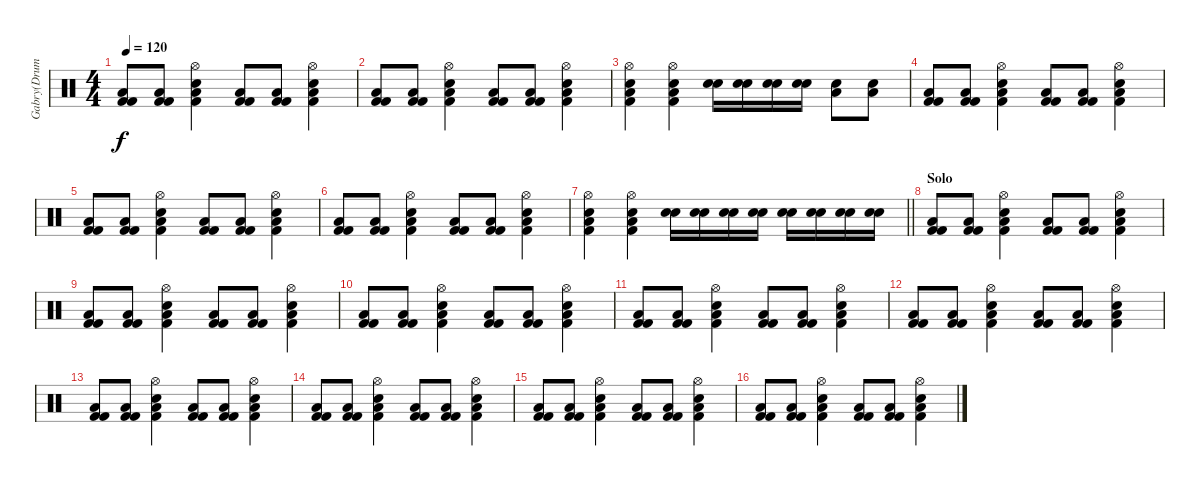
\track ("Gabry(Drums)" "Gabry(Drum") {instrument percussion}
\staff {score}
\articulation defaults
\ts (4 4)
\tempo 120
\clef neutral
\ks c
("Kick (hit) 2" "Kick (hit) 2" "Low Floor Tom (hit)").8{dy f} ("Kick (hit) 2" "Kick (hit) 2" "Low Floor Tom (hit)").8 ("Kick (hit) 2" "Electric Snare (hit)" "Low Floor Tom (hit)" "Hi-Hat (open)").4 ("Kick (hit) 2" "Kick (hit) 2" "Low Floor Tom (hit)").8 ("Kick (hit) 2" "Kick (hit) 2" "Low Floor Tom (hit)").8 ("Kick (hit) 2" "Electric Snare (hit)" "Low Floor Tom (hit)" "Hi-Hat (open)").4 |
("Kick (hit) 2" "Kick (hit) 2" "Low Floor Tom (hit)").8 ("Kick (hit) 2" "Kick (hit) 2" "Low Floor Tom (hit)").8 ("Kick (hit) 2" "Electric Snare (hit)" "Low Floor Tom (hit)" "Hi-Hat (open)").4 ("Kick (hit) 2" "Kick (hit) 2" "Low Floor Tom (hit)").8 ("Kick (hit) 2" "Kick (hit) 2" "Low Floor Tom (hit)").8 ("Kick (hit) 2" "Electric Snare (hit)" "Low Floor Tom (hit)" "Hi-Hat (open)").4 |
("Kick (hit) 2" "Electric Snare (hit)" "Low Floor Tom (hit)" "Hi-Hat (open)").4 ("Kick (hit) 2" "Electric Snare (hit)" "Low Floor Tom (hit)" "Hi-Hat (open)").4 ("Electric Snare (hit)" "Electric Snare (hit)").16 ("Electric Snare (hit)" "Electric Snare (hit)").16 ("Electric Snare (hit)" "Electric Snare (hit)").16 ("Electric Snare (hit)" "Electric Snare (hit)").16 ("Electric Snare (hit)" "Low Floor Tom (hit)").8 ("Electric Snare (hit)" "Low Floor Tom (hit)").8 |
("Kick (hit) 2" "Kick (hit) 2" "Low Floor Tom (hit)").8 ("Kick (hit) 2" "Kick (hit) 2" "Low Floor Tom (hit)").8 ("Kick (hit) 2" "Electric Snare (hit)" "Low Floor Tom (hit)" "Hi-Hat (open)").4 ("Kick (hit) 2" "Kick (hit) 2" "Low Floor Tom (hit)").8 ("Kick (hit) 2" "Kick (hit) 2" "Low Floor Tom (hit)").8 ("Kick (hit) 2" "Electric Snare (hit)" "Low Floor Tom (hit)" "Hi-Hat (open)").4 |
("Kick (hit) 2" "Kick (hit) 2" "Low Floor Tom (hit)").8 ("Kick (hit) 2" "Kick (hit) 2" "Low Floor Tom (hit)").8 ("Kick (hit) 2" "Electric Snare (hit)" "Low Floor Tom (hit)" "Hi-Hat (open)").4 ("Kick (hit) 2" "Kick (hit) 2" "Low Floor Tom (hit)").8 ("Kick (hit) 2" "Kick (hit) 2" "Low Floor Tom (hit)").8 ("Kick (hit) 2" "Electric Snare (hit)" "Low Floor Tom (hit)" "Hi-Hat (open)").4 |
("Kick (hit) 2" "Kick (hit) 2" "Low Floor Tom (hit)").8 ("Kick (hit) 2" "Kick (hit) 2" "Low Floor Tom (hit)").8 ("Kick (hit) 2" "Electric Snare (hit)" "Low Floor Tom (hit)" "Hi-Hat (open)").4 ("Kick (hit) 2" "Kick (hit) 2" "Low Floor Tom (hit)").8 ("Kick (hit) 2" "Kick (hit) 2" "Low Floor Tom (hit)").8 ("Kick (hit) 2" "Electric Snare (hit)" "Low Floor Tom (hit)" "Hi-Hat (open)").4 |
\barLineRight lightlight
("Kick (hit) 2" "Electric Snare (hit)" "Low Floor Tom (hit)" "Hi-Hat (open)").4 ("Kick (hit) 2" "Electric Snare (hit)" "Low Floor Tom (hit)" "Hi-Hat (open)").4 ("Electric Snare (hit)" "Electric Snare (hit)").16 ("Electric Snare (hit)" "Electric Snare (hit)").16 ("Electric Snare (hit)" "Electric Snare (hit)").16 ("Electric Snare (hit)" "Electric Snare (hit)").16 ("Electric Snare (hit)" "Electric Snare (hit)").16 ("Electric Snare (hit)" "Electric Snare (hit)").16 ("Electric Snare (hit)" "Electric Snare (hit)").16 ("Electric Snare (hit)" "Electric Snare (hit)").16 |
\section ("" "Solo")
("Kick (hit) 2" "Kick (hit) 2" "Low Floor Tom (hit)").8 ("Kick (hit) 2" "Kick (hit) 2" "Low Floor Tom (hit)").8 ("Kick (hit) 2" "Electric Snare (hit)" "Low Floor Tom (hit)" "Hi-Hat (open)").4 ("Kick (hit) 2" "Kick (hit) 2" "Low Floor Tom (hit)").8 ("Kick (hit) 2" "Kick (hit) 2" "Low Floor Tom (hit)").8 ("Kick (hit) 2" "Electric Snare (hit)" "Low Floor Tom (hit)" "Hi-Hat (open)").4 |
("Kick (hit) 2" "Kick (hit) 2" "Low Floor Tom (hit)").8 ("Kick (hit) 2" "Kick (hit) 2" "Low Floor Tom (hit)").8 ("Kick (hit) 2" "Electric Snare (hit)" "Low Floor Tom (hit)" "Hi-Hat (open)").4 ("Kick (hit) 2" "Kick (hit) 2" "Low Floor Tom (hit)").8 ("Kick (hit) 2" "Kick (hit) 2" "Low Floor Tom (hit)").8 ("Kick (hit) 2" "Electric Snare (hit)" "Low Floor Tom (hit)" "Hi-Hat (open)").4 |
("Kick (hit) 2" "Kick (hit) 2" "Low Floor Tom (hit)").8 ("Kick (hit) 2" "Kick (hit) 2" "Low Floor Tom (hit)").8 ("Kick (hit) 2" "Electric Snare (hit)" "Low Floor Tom (hit)" "Hi-Hat (open)").4 ("Kick (hit) 2" "Kick (hit) 2" "Low Floor Tom (hit)").8 ("Kick (hit) 2" "Kick (hit) 2" "Low Floor Tom (hit)").8 ("Kick (hit) 2" "Electric Snare (hit)" "Low Floor Tom (hit)" "Hi-Hat (open)").4 |
("Kick (hit) 2" "Kick (hit) 2" "Low Floor Tom (hit)").8 ("Kick (hit) 2" "Kick (hit) 2" "Low Floor Tom (hit)").8 ("Kick (hit) 2" "Electric Snare (hit)" "Low Floor Tom (hit)" "Hi-Hat (open)").4 ("Kick (hit) 2" "Kick (hit) 2" "Low Floor Tom (hit)").8 ("Kick (hit) 2" "Kick (hit) 2" "Low Floor Tom (hit)").8 ("Kick (hit) 2" "Electric Snare (hit)" "Low Floor Tom (hit)" "Hi-Hat (open)").4 |
("Kick (hit) 2" "Kick (hit) 2" "Low Floor Tom (hit)").8 ("Kick (hit) 2" "Kick (hit) 2" "Low Floor Tom (hit)").8 ("Kick (hit) 2" "Electric Snare (hit)" "Low Floor Tom (hit)" "Hi-Hat (open)").4 ("Kick (hit) 2" "Kick (hit) 2" "Low Floor Tom (hit)").8 ("Kick (hit) 2" "Kick (hit) 2" "Low Floor Tom (hit)").8 ("Kick (hit) 2" "Electric Snare (hit)" "Low Floor Tom (hit)" "Hi-Hat (open)").4 |
("Kick (hit) 2" "Kick (hit) 2" "Low Floor Tom (hit)").8 ("Kick (hit) 2" "Kick (hit) 2" "Low Floor Tom (hit)").8 ("Kick (hit) 2" "Electric Snare (hit)" "Low Floor Tom (hit)" "Hi-Hat (open)").4 ("Kick (hit) 2" "Kick (hit) 2" "Low Floor Tom (hit)").8 ("Kick (hit) 2" "Kick (hit) 2" "Low Floor Tom (hit)").8 ("Kick (hit) 2" "Electric Snare (hit)" "Low Floor Tom (hit)" "Hi-Hat (open)").4 |
("Kick (hit) 2" "Kick (hit) 2" "Low Floor Tom (hit)").8 ("Kick (hit) 2" "Kick (hit) 2" "Low Floor Tom (hit)").8 ("Kick (hit) 2" "Electric Snare (hit)" "Low Floor Tom (hit)" "Hi-Hat (open)").4 ("Kick (hit) 2" "Kick (hit) 2" "Low Floor Tom (hit)").8 ("Kick (hit) 2" "Kick (hit) 2" "Low Floor Tom (hit)").8 ("Kick (hit) 2" "Electric Snare (hit)" "Low Floor Tom (hit)" "Hi-Hat (open)").4 |
("Kick (hit) 2" "Kick (hit) 2" "Low Floor Tom (hit)").8 ("Kick (hit) 2" "Kick (hit) 2" "Low Floor Tom (hit)").8 ("Kick (hit) 2" "Electric Snare (hit)" "Low Floor Tom (hit)" "Hi-Hat (open)").4 ("Kick (hit) 2" "Kick (hit) 2" "Low Floor Tom (hit)").8 ("Kick (hit) 2" "Kick (hit) 2" "Low Floor Tom (hit)").8 ("Kick (hit) 2" "Electric Snare (hit)" "Low Floor Tom (hit)" "Hi-Hat (open)").4 |
("Kick (hit) 2" "Kick (hit) 2" "Low Floor Tom (hit)").8 ("Kick (hit) 2" "Kick (hit) 2" "Low Floor Tom (hit)").8 ("Kick (hit) 2" "Electric Snare (hit)" "Low Floor Tom (hit)" "Hi-Hat (open)").4 ("Kick (hit) 2" "Kick (hit) 2" "Low Floor Tom (hit)").8 ("Kick (hit) 2" "Kick (hit) 2" "Low Floor Tom (hit)").8 ("Kick (hit) 2" "Electric Snare (hit)" "Low Floor Tom (hit)" "Hi-Hat (open)").4
